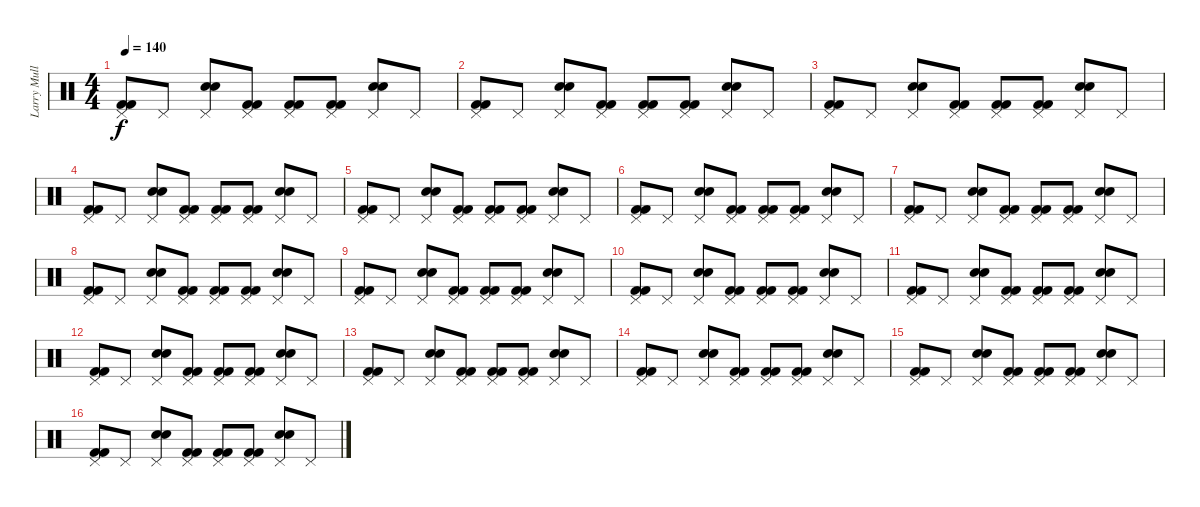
\track ("Larry Mullen JR." "Larry Mull") {instrument percussion}
\staff {score}
\articulation defaults
\ts (4 4)
\tempo 140
\clef neutral
\ks c
("Kick (hit) 2" "Kick (hit) 2" "Pedal Hi-Hat (hit)").8{dy f} "Pedal Hi-Hat (hit)".8 ("Electric Snare (hit)" "Snare (hit) 2" "Pedal Hi-Hat (hit)").8 ("Kick (hit) 2" "Kick (hit) 2" "Pedal Hi-Hat (hit)").8 ("Kick (hit) 2" "Kick (hit) 2" "Pedal Hi-Hat (hit)").8 ("Kick (hit) 2" "Kick (hit) 2" "Pedal Hi-Hat (hit)").8 ("Snare (hit) 2" "Electric Snare (hit)" "Pedal Hi-Hat (hit)").8 "Pedal Hi-Hat (hit)".8 |
("Kick (hit) 2" "Kick (hit) 2" "Pedal Hi-Hat (hit)").8 "Pedal Hi-Hat (hit)".8 ("Electric Snare (hit)" "Snare (hit) 2" "Pedal Hi-Hat (hit)").8 ("Kick (hit) 2" "Kick (hit) 2" "Pedal Hi-Hat (hit)").8 ("Kick (hit) 2" "Kick (hit) 2" "Pedal Hi-Hat (hit)").8 ("Kick (hit) 2" "Kick (hit) 2" "Pedal Hi-Hat (hit)").8 ("Snare (hit) 2" "Electric Snare (hit)" "Pedal Hi-Hat (hit)").8 "Pedal Hi-Hat (hit)".8 |
("Kick (hit) 2" "Kick (hit) 2" "Pedal Hi-Hat (hit)").8 "Pedal Hi-Hat (hit)".8 ("Electric Snare (hit)" "Snare (hit) 2" "Pedal Hi-Hat (hit)").8 ("Kick (hit) 2" "Kick (hit) 2" "Pedal Hi-Hat (hit)").8 ("Kick (hit) 2" "Kick (hit) 2" "Pedal Hi-Hat (hit)").8 ("Kick (hit) 2" "Kick (hit) 2" "Pedal Hi-Hat (hit)").8 ("Snare (hit) 2" "Electric Snare (hit)" "Pedal Hi-Hat (hit)").8 "Pedal Hi-Hat (hit)".8 |
("Kick (hit) 2" "Kick (hit) 2" "Pedal Hi-Hat (hit)").8 "Pedal Hi-Hat (hit)".8 ("Electric Snare (hit)" "Snare (hit) 2" "Pedal Hi-Hat (hit)").8 ("Kick (hit) 2" "Kick (hit) 2" "Pedal Hi-Hat (hit)").8 ("Kick (hit) 2" "Kick (hit) 2" "Pedal Hi-Hat (hit)").8 ("Kick (hit) 2" "Kick (hit) 2" "Pedal Hi-Hat (hit)").8 ("Snare (hit) 2" "Electric Snare (hit)" "Pedal Hi-Hat (hit)").8 "Pedal Hi-Hat (hit)".8 |
("Kick (hit) 2" "Kick (hit) 2" "Pedal Hi-Hat (hit)").8 "Pedal Hi-Hat (hit)".8 ("Electric Snare (hit)" "Snare (hit) 2" "Pedal Hi-Hat (hit)").8 ("Kick (hit) 2" "Kick (hit) 2" "Pedal Hi-Hat (hit)").8 ("Kick (hit) 2" "Kick (hit) 2" "Pedal Hi-Hat (hit)").8 ("Kick (hit) 2" "Kick (hit) 2" "Pedal Hi-Hat (hit)").8 ("Snare (hit) 2" "Electric Snare (hit)" "Pedal Hi-Hat (hit)").8 "Pedal Hi-Hat (hit)".8 |
("Kick (hit) 2" "Kick (hit) 2" "Pedal Hi-Hat (hit)").8 "Pedal Hi-Hat (hit)".8 ("Electric Snare (hit)" "Snare (hit) 2" "Pedal Hi-Hat (hit)").8 ("Kick (hit) 2" "Kick (hit) 2" "Pedal Hi-Hat (hit)").8 ("Kick (hit) 2" "Kick (hit) 2" "Pedal Hi-Hat (hit)").8 ("Kick (hit) 2" "Kick (hit) 2" "Pedal Hi-Hat (hit)").8 ("Snare (hit) 2" "Electric Snare (hit)" "Pedal Hi-Hat (hit)").8 "Pedal Hi-Hat (hit)".8 |
("Kick (hit) 2" "Kick (hit) 2" "Pedal Hi-Hat (hit)").8 "Pedal Hi-Hat (hit)".8 ("Electric Snare (hit)" "Snare (hit) 2" "Pedal Hi-Hat (hit)").8 ("Kick (hit) 2" "Kick (hit) 2" "Pedal Hi-Hat (hit)").8 ("Kick (hit) 2" "Kick (hit) 2" "Pedal Hi-Hat (hit)").8 ("Kick (hit) 2" "Kick (hit) 2" "Pedal Hi-Hat (hit)").8 ("Snare (hit) 2" "Electric Snare (hit)" "Pedal Hi-Hat (hit)").8 "Pedal Hi-Hat (hit)".8 |
("Kick (hit) 2" "Kick (hit) 2" "Pedal Hi-Hat (hit)").8 "Pedal Hi-Hat (hit)".8 ("Electric Snare (hit)" "Snare (hit) 2" "Pedal Hi-Hat (hit)").8 ("Kick (hit) 2" "Kick (hit) 2" "Pedal Hi-Hat (hit)").8 ("Kick (hit) 2" "Kick (hit) 2" "Pedal Hi-Hat (hit)").8 ("Kick (hit) 2" "Kick (hit) 2" "Pedal Hi-Hat (hit)").8 ("Snare (hit) 2" "Electric Snare (hit)" "Pedal Hi-Hat (hit)").8 "Pedal Hi-Hat (hit)".8 |
("Kick (hit) 2" "Kick (hit) 2" "Pedal Hi-Hat (hit)").8 "Pedal Hi-Hat (hit)".8 ("Electric Snare (hit)" "Snare (hit) 2" "Pedal Hi-Hat (hit)").8 ("Kick (hit) 2" "Kick (hit) 2" "Pedal Hi-Hat (hit)").8 ("Kick (hit) 2" "Kick (hit) 2" "Pedal Hi-Hat (hit)").8 ("Kick (hit) 2" "Kick (hit) 2" "Pedal Hi-Hat (hit)").8 ("Snare (hit) 2" "Electric Snare (hit)" "Pedal Hi-Hat (hit)").8 "Pedal Hi-Hat (hit)".8 |
("Kick (hit) 2" "Kick (hit) 2" "Pedal Hi-Hat (hit)").8 "Pedal Hi-Hat (hit)".8 ("Electric Snare (hit)" "Snare (hit) 2" "Pedal Hi-Hat (hit)").8 ("Kick (hit) 2" "Kick (hit) 2" "Pedal Hi-Hat (hit)").8 ("Kick (hit) 2" "Kick (hit) 2" "Pedal Hi-Hat (hit)").8 ("Kick (hit) 2" "Kick (hit) 2" "Pedal Hi-Hat (hit)").8 ("Snare (hit) 2" "Electric Snare (hit)" "Pedal Hi-Hat (hit)").8 "Pedal Hi-Hat (hit)".8 |
("Kick (hit) 2" "Kick (hit) 2" "Pedal Hi-Hat (hit)").8 "Pedal Hi-Hat (hit)".8 ("Electric Snare (hit)" "Snare (hit) 2" "Pedal Hi-Hat (hit)").8 ("Kick (hit) 2" "Kick (hit) 2" "Pedal Hi-Hat (hit)").8 ("Kick (hit) 2" "Kick (hit) 2" "Pedal Hi-Hat (hit)").8 ("Kick (hit) 2" "Kick (hit) 2" "Pedal Hi-Hat (hit)").8 ("Snare (hit) 2" "Electric Snare (hit)" "Pedal Hi-Hat (hit)").8 "Pedal Hi-Hat (hit)".8 |
("Kick (hit) 2" "Kick (hit) 2" "Pedal Hi-Hat (hit)").8 "Pedal Hi-Hat (hit)".8 ("Electric Snare (hit)" "Snare (hit) 2" "Pedal Hi-Hat (hit)").8 ("Kick (hit) 2" "Kick (hit) 2" "Pedal Hi-Hat (hit)").8 ("Kick (hit) 2" "Kick (hit) 2" "Pedal Hi-Hat (hit)").8 ("Kick (hit) 2" "Kick (hit) 2" "Pedal Hi-Hat (hit)").8 ("Snare (hit) 2" "Electric Snare (hit)" "Pedal Hi-Hat (hit)").8 "Pedal Hi-Hat (hit)".8 |
("Kick (hit) 2" "Kick (hit) 2" "Pedal Hi-Hat (hit)").8 "Pedal Hi-Hat (hit)".8 ("Electric Snare (hit)" "Snare (hit) 2" "Pedal Hi-Hat (hit)").8 ("Kick (hit) 2" "Kick (hit) 2" "Pedal Hi-Hat (hit)").8 ("Kick (hit) 2" "Kick (hit) 2" "Pedal Hi-Hat (hit)").8 ("Kick (hit) 2" "Kick (hit) 2" "Pedal Hi-Hat (hit)").8 ("Snare (hit) 2" "Electric Snare (hit)" "Pedal Hi-Hat (hit)").8 "Pedal Hi-Hat (hit)".8 |
("Kick (hit) 2" "Kick (hit) 2" "Pedal Hi-Hat (hit)").8 "Pedal Hi-Hat (hit)".8 ("Electric Snare (hit)" "Snare (hit) 2" "Pedal Hi-Hat (hit)").8 ("Kick (hit) 2" "Kick (hit) 2" "Pedal Hi-Hat (hit)").8 ("Kick (hit) 2" "Kick (hit) 2" "Pedal Hi-Hat (hit)").8 ("Kick (hit) 2" "Kick (hit) 2" "Pedal Hi-Hat (hit)").8 ("Snare (hit) 2" "Electric Snare (hit)" "Pedal Hi-Hat (hit)").8 "Pedal Hi-Hat (hit)".8 |
("Kick (hit) 2" "Kick (hit) 2" "Pedal Hi-Hat (hit)").8 "Pedal Hi-Hat (hit)".8 ("Electric Snare (hit)" "Snare (hit) 2" "Pedal Hi-Hat (hit)").8 ("Kick (hit) 2" "Kick (hit) 2" "Pedal Hi-Hat (hit)").8 ("Kick (hit) 2" "Kick (hit) 2" "Pedal Hi-Hat (hit)").8 ("Kick (hit) 2" "Kick (hit) 2" "Pedal Hi-Hat (hit)").8 ("Snare (hit) 2" "Electric Snare (hit)" "Pedal Hi-Hat (hit)").8 "Pedal Hi-Hat (hit)".8 |
("Kick (hit) 2" "Kick (hit) 2" "Pedal Hi-Hat (hit)").8 "Pedal Hi-Hat (hit)".8 ("Electric Snare (hit)" "Snare (hit) 2" "Pedal Hi-Hat (hit)").8 ("Kick (hit) 2" "Kick (hit) 2" "Pedal Hi-Hat (hit)").8 ("Kick (hit) 2" "Kick (hit) 2" "Pedal Hi-Hat (hit)").8 ("Kick (hit) 2" "Kick (hit) 2" "Pedal Hi-Hat (hit)").8 ("Snare (hit) 2" "Electric Snare (hit)" "Pedal Hi-Hat (hit)").8 "Pedal Hi-Hat (hit)".8
